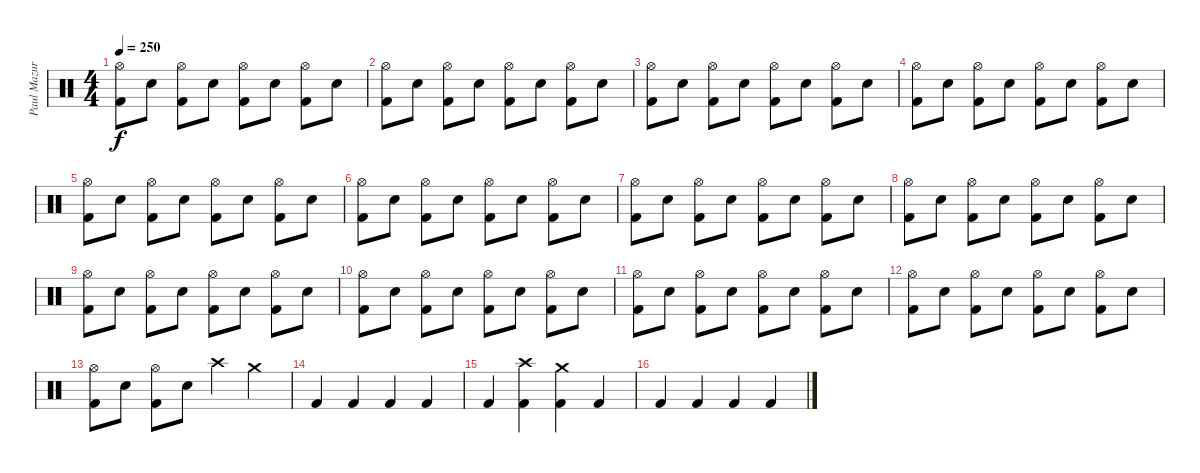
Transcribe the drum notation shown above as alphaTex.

\track ("Paul Mazurkiewicz" "Paul Mazur") {instrument percussion}
\staff {score}
\articulation defaults
\ts (4 4)
\tempo 250
\clef neutral
\ks c
("Hi-Hat (open)" "Kick (hit) 2").8{dy f} "Snare (hit) 2".8 ("Hi-Hat (open)" "Kick (hit) 2").8 "Snare (hit) 2".8 ("Hi-Hat (open)" "Kick (hit) 2").8 "Snare (hit) 2".8 ("Hi-Hat (open)" "Kick (hit) 2").8 "Snare (hit) 2".8 |
("Hi-Hat (open)" "Kick (hit) 2").8 "Snare (hit) 2".8 ("Hi-Hat (open)" "Kick (hit) 2").8 "Snare (hit) 2".8 ("Hi-Hat (open)" "Kick (hit) 2").8 "Snare (hit) 2".8 ("Hi-Hat (open)" "Kick (hit) 2").8 "Snare (hit) 2".8 |
("Hi-Hat (open)" "Kick (hit) 2").8 "Snare (hit) 2".8 ("Hi-Hat (open)" "Kick (hit) 2").8 "Snare (hit) 2".8 ("Hi-Hat (open)" "Kick (hit) 2").8 "Snare (hit) 2".8 ("Hi-Hat (open)" "Kick (hit) 2").8 "Snare (hit) 2".8 |
("Hi-Hat (open)" "Kick (hit) 2").8 "Snare (hit) 2".8 ("Hi-Hat (open)" "Kick (hit) 2").8 "Snare (hit) 2".8 ("Hi-Hat (open)" "Kick (hit) 2").8 "Snare (hit) 2".8 ("Hi-Hat (open)" "Kick (hit) 2").8 "Snare (hit) 2".8 |
("Hi-Hat (open)" "Kick (hit) 2").8 "Snare (hit) 2".8 ("Hi-Hat (open)" "Kick (hit) 2").8 "Snare (hit) 2".8 ("Hi-Hat (open)" "Kick (hit) 2").8 "Snare (hit) 2".8 ("Hi-Hat (open)" "Kick (hit) 2").8 "Snare (hit) 2".8 |
("Hi-Hat (open)" "Kick (hit) 2").8 "Snare (hit) 2".8 ("Hi-Hat (open)" "Kick (hit) 2").8 "Snare (hit) 2".8 ("Hi-Hat (open)" "Kick (hit) 2").8 "Snare (hit) 2".8 ("Hi-Hat (open)" "Kick (hit) 2").8 "Snare (hit) 2".8 |
("Hi-Hat (open)" "Kick (hit) 2").8 "Snare (hit) 2".8 ("Hi-Hat (open)" "Kick (hit) 2").8 "Snare (hit) 2".8 ("Hi-Hat (open)" "Kick (hit) 2").8 "Snare (hit) 2".8 ("Hi-Hat (open)" "Kick (hit) 2").8 "Snare (hit) 2".8 |
("Hi-Hat (open)" "Kick (hit) 2").8 "Snare (hit) 2".8 ("Hi-Hat (open)" "Kick (hit) 2").8 "Snare (hit) 2".8 ("Hi-Hat (open)" "Kick (hit) 2").8 "Snare (hit) 2".8 ("Hi-Hat (open)" "Kick (hit) 2").8 "Snare (hit) 2".8 |
("Hi-Hat (open)" "Kick (hit) 2").8 "Snare (hit) 2".8 ("Hi-Hat (open)" "Kick (hit) 2").8 "Snare (hit) 2".8 ("Hi-Hat (open)" "Kick (hit) 2").8 "Snare (hit) 2".8 ("Hi-Hat (open)" "Kick (hit) 2").8 "Snare (hit) 2".8 |
("Hi-Hat (open)" "Kick (hit) 2").8 "Snare (hit) 2".8 ("Hi-Hat (open)" "Kick (hit) 2").8 "Snare (hit) 2".8 ("Hi-Hat (open)" "Kick (hit) 2").8 "Snare (hit) 2".8 ("Hi-Hat (open)" "Kick (hit) 2").8 "Snare (hit) 2".8 |
("Hi-Hat (open)" "Kick (hit) 2").8 "Snare (hit) 2".8 ("Hi-Hat (open)" "Kick (hit) 2").8 "Snare (hit) 2".8 ("Hi-Hat (open)" "Kick (hit) 2").8 "Snare (hit) 2".8 ("Hi-Hat (open)" "Kick (hit) 2").8 "Snare (hit) 2".8 |
("Hi-Hat (open)" "Kick (hit) 2").8 "Snare (hit) 2".8 ("Hi-Hat (open)" "Kick (hit) 2").8 "Snare (hit) 2".8 ("Hi-Hat (open)" "Kick (hit) 2").8 "Snare (hit) 2".8 ("Hi-Hat (open)" "Kick (hit) 2").8 "Snare (hit) 2".8 |
("Hi-Hat (open)" "Kick (hit) 2").8 "Snare (hit) 2".8 ("Hi-Hat (open)" "Kick (hit) 2").8 "Snare (hit) 2".8 "Crash high (hit)".4 "Crash medium (hit)".4 |
"Kick (hit) 2".4 "Kick (hit) 2".4 "Kick (hit) 2".4 "Kick (hit) 2".4 |
"Kick (hit) 2".4 ("Crash high (hit)" "Kick (hit) 2").4 ("Crash medium (hit)" "Kick (hit) 2").4 "Kick (hit) 2".4 |
"Kick (hit) 2".4 "Kick (hit) 2".4 "Kick (hit) 2".4 "Kick (hit) 2".4
